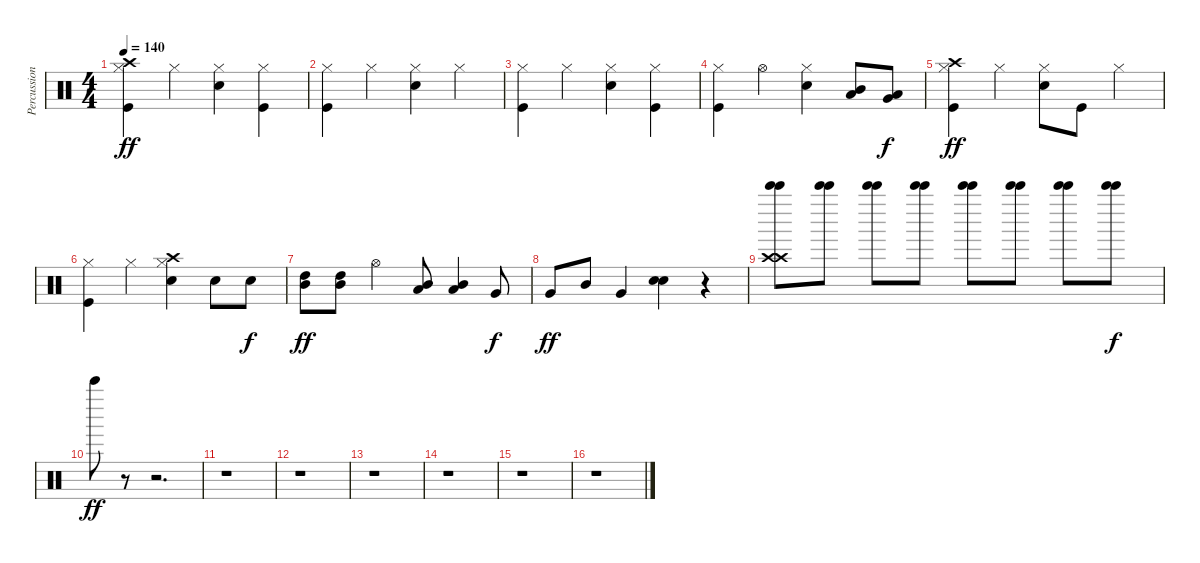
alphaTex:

\track ("Percussions" "Percussion") {instrument percussion}
\staff {score}
\articulation defaults
\ts (4 4)
\tempo 140
\clef neutral
\ks c
("Kick (hit)" "Hi-Hat (closed)" "Crash high (hit)").4{dy ff} "Hi-Hat (closed)".4 ("Snare (hit) 2" "Hi-Hat (closed)").4 ("Kick (hit)" "Hi-Hat (closed)").4 |
("Kick (hit)" "Hi-Hat (closed)").4 "Hi-Hat (closed)".4 ("Snare (hit) 2" "Hi-Hat (closed)").4 "Hi-Hat (closed)".4 |
("Kick (hit)" "Hi-Hat (closed)").4 "Hi-Hat (closed)".4 ("Snare (hit) 2" "Hi-Hat (closed)").4 ("Kick (hit)" "Hi-Hat (closed)").4 |
("Kick (hit)" "Hi-Hat (closed)").4 "Hi-Hat (open)".4 ("Snare (hit) 2" "Hi-Hat (closed)").4 ("Low Tom (hit)" "Mid Tom (hit)").8 ("Very Low Tom (hit)" "Low Tom (hit)").8{dy f} |
("Kick (hit)" "Hi-Hat (closed)" "Crash high (hit)").4{dy ff} "Hi-Hat (closed)".4 ("Snare (hit) 2" "Hi-Hat (closed)").8 "Kick (hit)".8 "Hi-Hat (closed)".4 |
("Kick (hit)" "Hi-Hat (closed)").4 "Hi-Hat (closed)".4 ("Snare (hit) 2" "Hi-Hat (closed)" "Crash high (hit)").4 "Snare (hit) 2".8 "Snare (hit) 2".8{dy f} |
("Mid Tom (hit)" "High Tom (hit)").8{dy ff} ("Mid Tom (hit)" "High Tom (hit)").8 "Hi-Hat (open)".4 ("Low Tom (hit)" "Mid Tom (hit)").8 ("Low Tom (hit)" "Mid Tom (hit)").4 "Very Low Tom (hit)".8{dy f} |
"Very Low Tom (hit)".8{dy ff} "Mid Tom (hit)".8 "Very Low Tom (hit)".4 ("Snare (hit) 2" "Electric Snare (hit)").4 r.4 |
("Crash high (hit)" "Crash high (hit)" "Bell Tree (hit)" "Bell Tree (hit)").8{volume 16} ("Bell Tree (hit)" "Bell Tree (hit)").8{volume 14} ("Bell Tree (hit)" "Bell Tree (hit)").8{volume 12} ("Bell Tree (hit)" "Bell Tree (hit)").8{volume 10} ("Bell Tree (hit)" "Bell Tree (hit)").8{volume 8} ("Bell Tree (hit)" "Bell Tree (hit)").8{volume 6} ("Bell Tree (hit)" "Bell Tree (hit)").8{volume 4} ("Bell Tree (hit)" "Bell Tree (hit)").8{dy f volume 2} |
"Bell Tree (hit)".8{dy ff volume 0} r.8 r.2{d} |
r.1 |
r.1 |
r.1 |
r.1 |
r.1 |
r.1
